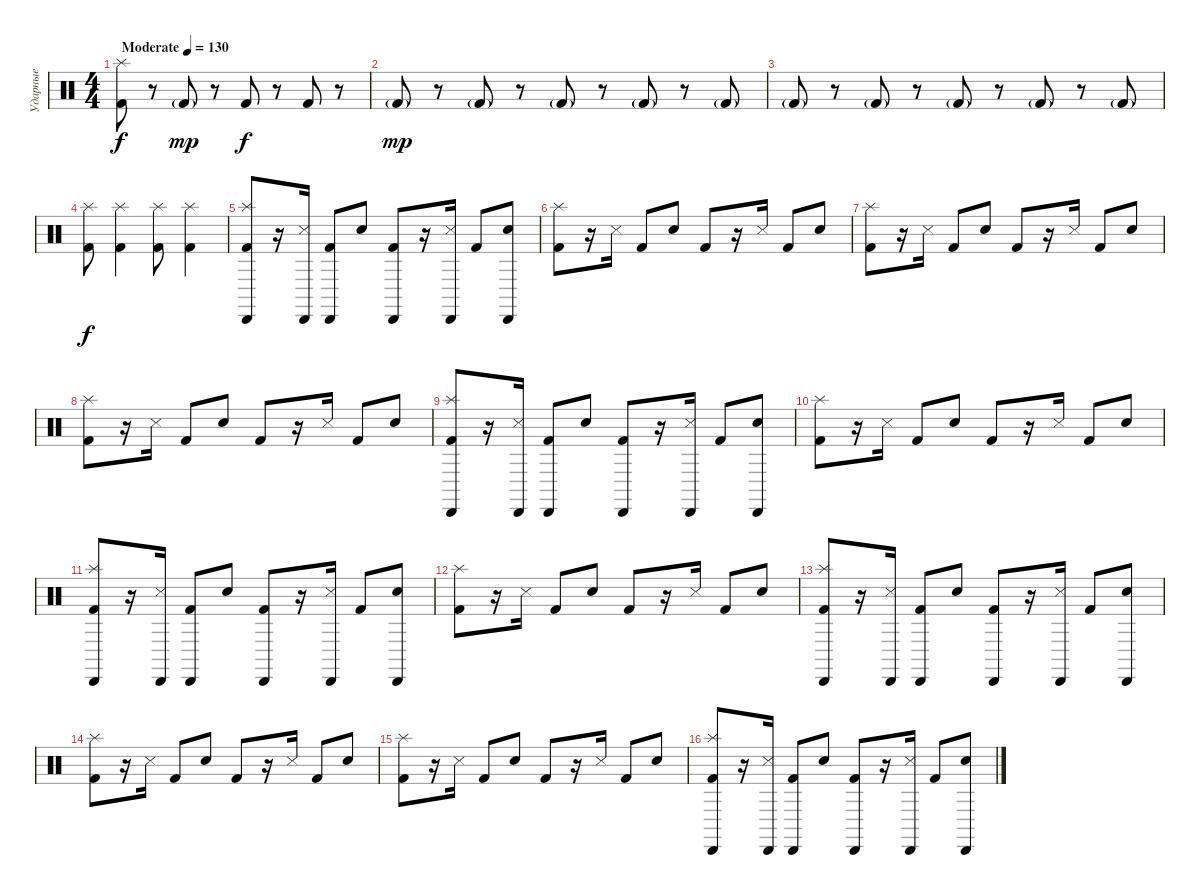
\track ("Ударные" "Ударные") {instrument percussion}
\staff {score}
\articulation defaults
\ts (4 4)
\tempo (130 "Moderate")
\clef neutral
\ks c
("Kick (hit) 2" "Splash (hit)").8{dy f} r.8 "Kick (hit) 2"{g}.8{dy mp} r.8 "Kick (hit) 2".8{dy f} r.8 "Kick (hit) 2".8 r.8 |
"Kick (hit) 2"{g}.8{dy mp} r.8 "Kick (hit) 2"{g}.8 r.8 "Kick (hit) 2"{g}.8 r.8 "Kick (hit) 2"{g}.8 r.8 "Kick (hit) 2"{g}.8 |
"Kick (hit) 2"{g}.8 r.8 "Kick (hit) 2"{g}.8 r.8 "Kick (hit) 2"{g}.8 r.8 "Kick (hit) 2"{g}.8 r.8 "Kick (hit) 2"{g}.8 |
("Kick (hit) 2" "Splash (hit)").8{dy f} ("Kick (hit) 2" "Splash (hit)").4 ("Kick (hit) 2" "Splash (hit)").8 ("Kick (hit) 2" "Splash (hit)").4 |
("Splash (hit)" "Kick (hit) 2" "Cabasa (hit)").8 r.16 ("Snare (side stick) 3" "Cabasa (hit)").16 ("Kick (hit) 2" "Cabasa (hit)").8 "Hand Clap (hit)".8 ("Kick (hit) 2" "Cabasa (hit)").8 r.16 ("Snare (side stick) 3" "Cabasa (hit)").16 "Kick (hit) 2".8 ("Hand Clap (hit)" "Cabasa (hit)").8 |
("Splash (hit)" "Kick (hit) 2").8 r.16 "Snare (side stick) 3".16 "Kick (hit) 2".8 "Hand Clap (hit)".8 "Kick (hit) 2".8 r.16 "Snare (side stick) 3".16 "Kick (hit) 2".8 "Hand Clap (hit)".8 |
("Splash (hit)" "Kick (hit) 2").8 r.16 "Snare (side stick) 3".16 "Kick (hit) 2".8 "Hand Clap (hit)".8 "Kick (hit) 2".8 r.16 "Snare (side stick) 3".16 "Kick (hit) 2".8 "Hand Clap (hit)".8 |
("Splash (hit)" "Kick (hit) 2").8 r.16 "Snare (side stick) 3".16 "Kick (hit) 2".8 "Hand Clap (hit)".8 "Kick (hit) 2".8 r.16 "Snare (side stick) 3".16 "Kick (hit) 2".8 "Hand Clap (hit)".8 |
("Splash (hit)" "Kick (hit) 2" "Cabasa (hit)").8 r.16 ("Snare (side stick) 3" "Cabasa (hit)").16 ("Kick (hit) 2" "Cabasa (hit)").8 "Hand Clap (hit)".8 ("Kick (hit) 2" "Cabasa (hit)").8 r.16 ("Snare (side stick) 3" "Cabasa (hit)").16 "Kick (hit) 2".8 ("Hand Clap (hit)" "Cabasa (hit)").8 |
("Splash (hit)" "Kick (hit) 2").8 r.16 "Snare (side stick) 3".16 "Kick (hit) 2".8 "Hand Clap (hit)".8 "Kick (hit) 2".8 r.16 "Snare (side stick) 3".16 "Kick (hit) 2".8 "Hand Clap (hit)".8 |
("Splash (hit)" "Kick (hit) 2" "Cabasa (hit)").8 r.16 ("Snare (side stick) 3" "Cabasa (hit)").16 ("Kick (hit) 2" "Cabasa (hit)").8 "Hand Clap (hit)".8 ("Kick (hit) 2" "Cabasa (hit)").8 r.16 ("Snare (side stick) 3" "Cabasa (hit)").16 "Kick (hit) 2".8 ("Hand Clap (hit)" "Cabasa (hit)").8 |
("Splash (hit)" "Kick (hit) 2").8 r.16 "Snare (side stick) 3".16 "Kick (hit) 2".8 "Hand Clap (hit)".8 "Kick (hit) 2".8 r.16 "Snare (side stick) 3".16 "Kick (hit) 2".8 "Hand Clap (hit)".8 |
("Splash (hit)" "Kick (hit) 2" "Cabasa (hit)").8 r.16 ("Snare (side stick) 3" "Cabasa (hit)").16 ("Kick (hit) 2" "Cabasa (hit)").8 "Hand Clap (hit)".8 ("Kick (hit) 2" "Cabasa (hit)").8 r.16 ("Snare (side stick) 3" "Cabasa (hit)").16 "Kick (hit) 2".8 ("Hand Clap (hit)" "Cabasa (hit)").8 |
("Splash (hit)" "Kick (hit) 2").8 r.16 "Snare (side stick) 3".16 "Kick (hit) 2".8 "Hand Clap (hit)".8 "Kick (hit) 2".8 r.16 "Snare (side stick) 3".16 "Kick (hit) 2".8 "Hand Clap (hit)".8 |
("Splash (hit)" "Kick (hit) 2").8 r.16 "Snare (side stick) 3".16 "Kick (hit) 2".8 "Hand Clap (hit)".8 "Kick (hit) 2".8 r.16 "Snare (side stick) 3".16 "Kick (hit) 2".8 "Hand Clap (hit)".8 |
("Splash (hit)" "Kick (hit) 2" "Cabasa (hit)").8 r.16 ("Snare (side stick) 3" "Cabasa (hit)").16 ("Kick (hit) 2" "Cabasa (hit)").8 "Hand Clap (hit)".8 ("Kick (hit) 2" "Cabasa (hit)").8 r.16 ("Snare (side stick) 3" "Cabasa (hit)").16 "Kick (hit) 2".8 ("Hand Clap (hit)" "Cabasa (hit)").8
